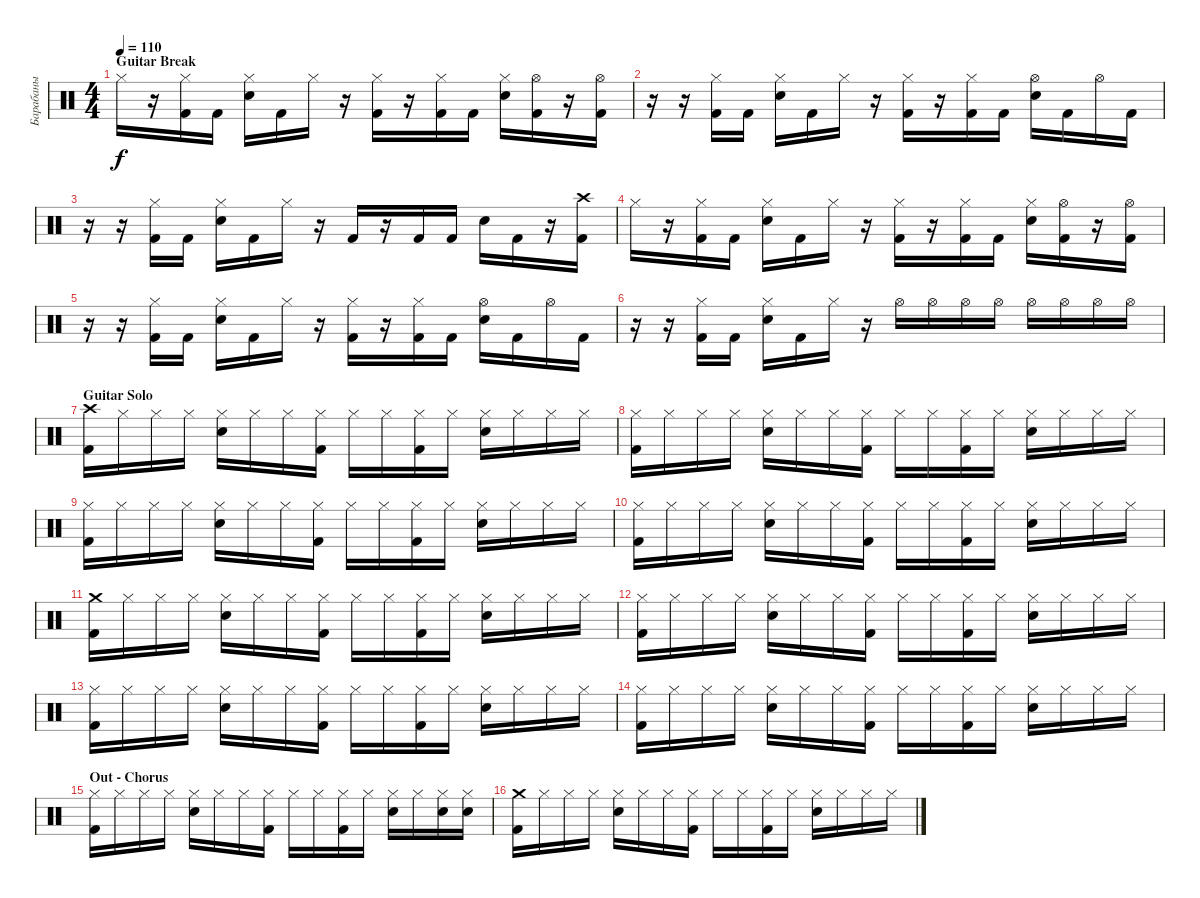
\track ("Барабаны" "Барабаны") {instrument percussion}
\staff {score}
\articulation defaults
\ts (4 4)
\section ("" "Guitar Break")
\tempo 110
\clef neutral
\ks c "Hi-Hat (closed)".16{dy f}
r.16 ("Hi-Hat (closed)" "Kick (hit) 2").16 "Kick (hit) 2".16 ("Hi-Hat (closed)" "Snare (hit) 2").16 "Kick (hit) 2".16 "Hi-Hat (closed)".16 r.16 ("Hi-Hat (closed)" "Kick (hit) 2").16 r.16 ("Hi-Hat (closed)" "Kick (hit) 2").16 "Kick (hit) 2".16 ("Hi-Hat (closed)" "Snare (hit) 2").16 ("Hi-Hat (open)" "Kick (hit) 2").16 r.16 ("Hi-Hat (open)" "Kick (hit) 2").16 |
r.16 r.16 ("Hi-Hat (closed)" "Kick (hit) 2").16 "Kick (hit) 2".16 ("Hi-Hat (closed)" "Snare (hit) 2").16 "Kick (hit) 2".16 "Hi-Hat (closed)".16 r.16 ("Hi-Hat (closed)" "Kick (hit) 2").16 r.16 ("Hi-Hat (closed)" "Kick (hit) 2").16 "Kick (hit) 2".16 ("Hi-Hat (open)" "Snare (hit) 2").16 "Kick (hit) 2".16 "Hi-Hat (open)".16 "Kick (hit) 2".16 |
r.16 r.16 ("Hi-Hat (closed)" "Kick (hit) 2").16 "Kick (hit) 2".16 ("Hi-Hat (closed)" "Snare (hit) 2").16 "Kick (hit) 2".16 "Hi-Hat (closed)".16 r.16 "Kick (hit) 2".16 r.16 "Kick (hit) 2".16 "Kick (hit) 2".16 "Snare (hit) 2".16 "Kick (hit) 2".16 r.16 ("Crash high (hit)" "Kick (hit) 2").16 |
"Hi-Hat (closed)".16 r.16 ("Hi-Hat (closed)" "Kick (hit) 2").16 "Kick (hit) 2".16 ("Hi-Hat (closed)" "Snare (hit) 2").16 "Kick (hit) 2".16 "Hi-Hat (closed)".16 r.16 ("Hi-Hat (closed)" "Kick (hit) 2").16 r.16 ("Hi-Hat (closed)" "Kick (hit) 2").16 "Kick (hit) 2".16 ("Hi-Hat (closed)" "Snare (hit) 2").16 ("Hi-Hat (open)" "Kick (hit) 2").16 r.16 ("Hi-Hat (open)" "Kick (hit) 2").16 |
r.16 r.16 ("Hi-Hat (closed)" "Kick (hit) 2").16 "Kick (hit) 2".16 ("Hi-Hat (closed)" "Snare (hit) 2").16 "Kick (hit) 2".16 "Hi-Hat (closed)".16 r.16 ("Hi-Hat (closed)" "Kick (hit) 2").16 r.16 ("Hi-Hat (closed)" "Kick (hit) 2").16 "Kick (hit) 2".16 ("Hi-Hat (open)" "Snare (hit) 2").16 "Kick (hit) 2".16 "Hi-Hat (open)".16 "Kick (hit) 2".16 |
r.16 r.16 ("Hi-Hat (closed)" "Kick (hit) 2").16 "Kick (hit) 2".16 ("Hi-Hat (closed)" "Snare (hit) 2").16 "Kick (hit) 2".16 "Hi-Hat (closed)".16 r.16 "Hi-Hat (open)".16 "Hi-Hat (open)".16 "Hi-Hat (open)".16 "Hi-Hat (open)".16 "Hi-Hat (open)".16 "Hi-Hat (open)".16 "Hi-Hat (open)".16 "Hi-Hat (open)".16 |
\section ("" "Guitar Solo")
("Crash high (hit)" "Kick (hit) 2").16 "Hi-Hat (closed)".16 "Hi-Hat (closed)".16 "Hi-Hat (closed)".16 ("Hi-Hat (closed)" "Snare (hit) 2").16 "Hi-Hat (closed)".16 "Hi-Hat (closed)".16 ("Hi-Hat (closed)" "Kick (hit) 2").16 "Hi-Hat (closed)".16 "Hi-Hat (closed)".16 ("Hi-Hat (closed)" "Kick (hit) 2").16 "Hi-Hat (closed)".16 ("Hi-Hat (closed)" "Snare (hit) 2").16 "Hi-Hat (closed)".16 "Hi-Hat (closed)".16 "Hi-Hat (closed)".16 |
("Hi-Hat (closed)" "Kick (hit) 2").16 "Hi-Hat (closed)".16 "Hi-Hat (closed)".16 "Hi-Hat (closed)".16 ("Hi-Hat (closed)" "Snare (hit) 2").16 "Hi-Hat (closed)".16 "Hi-Hat (closed)".16 ("Hi-Hat (closed)" "Kick (hit) 2").16 "Hi-Hat (closed)".16 "Hi-Hat (closed)".16 ("Hi-Hat (closed)" "Kick (hit) 2").16 "Hi-Hat (closed)".16 ("Hi-Hat (closed)" "Snare (hit) 2").16 "Hi-Hat (closed)".16 "Hi-Hat (closed)".16 "Hi-Hat (closed)".16 |
("Hi-Hat (closed)" "Kick (hit) 2").16 "Hi-Hat (closed)".16 "Hi-Hat (closed)".16 "Hi-Hat (closed)".16 ("Hi-Hat (closed)" "Snare (hit) 2").16 "Hi-Hat (closed)".16 "Hi-Hat (closed)".16 ("Hi-Hat (closed)" "Kick (hit) 2").16 "Hi-Hat (closed)".16 "Hi-Hat (closed)".16 ("Hi-Hat (closed)" "Kick (hit) 2").16 "Hi-Hat (closed)".16 ("Hi-Hat (closed)" "Snare (hit) 2").16 "Hi-Hat (closed)".16 "Hi-Hat (closed)".16 "Hi-Hat (closed)".16 |
("Hi-Hat (closed)" "Kick (hit) 2").16 "Hi-Hat (closed)".16 "Hi-Hat (closed)".16 "Hi-Hat (closed)".16 ("Hi-Hat (closed)" "Snare (hit) 2").16 "Hi-Hat (closed)".16 "Hi-Hat (closed)".16 ("Hi-Hat (closed)" "Kick (hit) 2").16 "Hi-Hat (closed)".16 "Hi-Hat (closed)".16 ("Hi-Hat (closed)" "Kick (hit) 2").16 "Hi-Hat (closed)".16 ("Hi-Hat (closed)" "Snare (hit) 2").16 "Hi-Hat (closed)".16 "Hi-Hat (closed)".16 "Hi-Hat (closed)".16 |
("Crash medium (hit)" "Kick (hit) 2").16 "Hi-Hat (closed)".16 "Hi-Hat (closed)".16 "Hi-Hat (closed)".16 ("Hi-Hat (closed)" "Snare (hit) 2").16 "Hi-Hat (closed)".16 "Hi-Hat (closed)".16 ("Hi-Hat (closed)" "Kick (hit) 2").16 "Hi-Hat (closed)".16 "Hi-Hat (closed)".16 ("Hi-Hat (closed)" "Kick (hit) 2").16 "Hi-Hat (closed)".16 ("Hi-Hat (closed)" "Snare (hit) 2").16 "Hi-Hat (closed)".16 "Hi-Hat (closed)".16 "Hi-Hat (closed)".16 |
("Hi-Hat (closed)" "Kick (hit) 2").16 "Hi-Hat (closed)".16 "Hi-Hat (closed)".16 "Hi-Hat (closed)".16 ("Hi-Hat (closed)" "Snare (hit) 2").16 "Hi-Hat (closed)".16 "Hi-Hat (closed)".16 ("Hi-Hat (closed)" "Kick (hit) 2").16 "Hi-Hat (closed)".16 "Hi-Hat (closed)".16 ("Hi-Hat (closed)" "Kick (hit) 2").16 "Hi-Hat (closed)".16 ("Hi-Hat (closed)" "Snare (hit) 2").16 "Hi-Hat (closed)".16 "Hi-Hat (closed)".16 "Hi-Hat (closed)".16 |
("Hi-Hat (closed)" "Kick (hit) 2").16 "Hi-Hat (closed)".16 "Hi-Hat (closed)".16 "Hi-Hat (closed)".16 ("Hi-Hat (closed)" "Snare (hit) 2").16 "Hi-Hat (closed)".16 "Hi-Hat (closed)".16 ("Hi-Hat (closed)" "Kick (hit) 2").16 "Hi-Hat (closed)".16 "Hi-Hat (closed)".16 ("Hi-Hat (closed)" "Kick (hit) 2").16 "Hi-Hat (closed)".16 ("Hi-Hat (closed)" "Snare (hit) 2").16 "Hi-Hat (closed)".16 "Hi-Hat (closed)".16 "Hi-Hat (closed)".16 |
("Hi-Hat (closed)" "Kick (hit) 2").16 "Hi-Hat (closed)".16 "Hi-Hat (closed)".16 "Hi-Hat (closed)".16 ("Hi-Hat (closed)" "Snare (hit) 2").16 "Hi-Hat (closed)".16 "Hi-Hat (closed)".16 ("Hi-Hat (closed)" "Kick (hit) 2").16 "Hi-Hat (closed)".16 "Hi-Hat (closed)".16 ("Hi-Hat (closed)" "Kick (hit) 2").16 "Hi-Hat (closed)".16 ("Hi-Hat (closed)" "Snare (hit) 2").16 "Hi-Hat (closed)".16 "Hi-Hat (closed)".16 "Hi-Hat (closed)".16 |
\section ("" "Out - Chorus")
("Hi-Hat (closed)" "Kick (hit) 2").16 "Hi-Hat (closed)".16 "Hi-Hat (closed)".16 "Hi-Hat (closed)".16 ("Hi-Hat (closed)" "Snare (hit) 2").16 "Hi-Hat (closed)".16 "Hi-Hat (closed)".16 ("Hi-Hat (closed)" "Kick (hit) 2").16 "Hi-Hat (closed)".16 "Hi-Hat (closed)".16 ("Hi-Hat (closed)" "Kick (hit) 2").16 "Hi-Hat (closed)".16 ("Hi-Hat (closed)" "Snare (hit) 2").16 "Hi-Hat (closed)".16 ("Hi-Hat (closed)" "Snare (hit) 2").16 ("Hi-Hat (closed)" "Snare (hit) 2").16 |
("Crash medium (hit)" "Kick (hit) 2").16 "Hi-Hat (closed)".16 "Hi-Hat (closed)".16 "Hi-Hat (closed)".16 ("Hi-Hat (closed)" "Snare (hit) 2").16 "Hi-Hat (closed)".16 "Hi-Hat (closed)".16 ("Hi-Hat (closed)" "Kick (hit) 2").16 "Hi-Hat (closed)".16 "Hi-Hat (closed)".16 ("Hi-Hat (closed)" "Kick (hit) 2").16 "Hi-Hat (closed)".16 ("Hi-Hat (closed)" "Snare (hit) 2").16 "Hi-Hat (closed)".16 "Hi-Hat (closed)".16 "Hi-Hat (closed)".16
